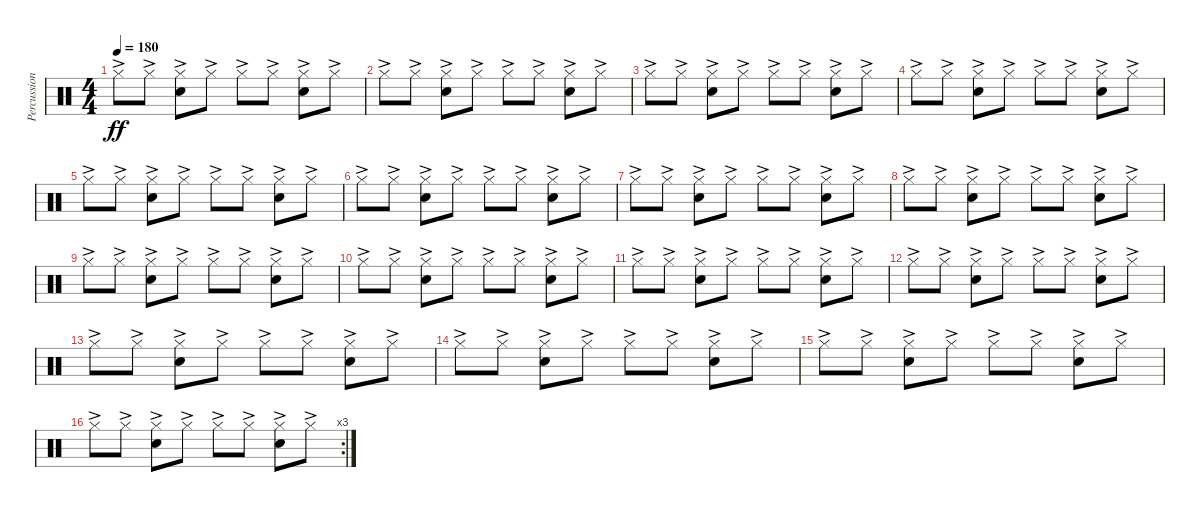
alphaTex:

\track ("Percussion" "Percussion") {instrument percussion}
\staff {score}
\articulation defaults
\ts (4 4)
\tempo 180
\clef neutral
\ks c "Hi-Hat (closed)"{ac}.8{dy ff} "Hi-Hat (closed)"{ac}.8
("Hi-Hat (closed)"{ac} "Snare (hit) 2"{ac}).8 "Hi-Hat (closed)"{ac}.8 "Hi-Hat (closed)"{ac}.8 "Hi-Hat (closed)"{ac}.8 ("Hi-Hat (closed)"{ac} "Snare (hit) 2"{ac}).8 "Hi-Hat (closed)"{ac}.8 |
"Hi-Hat (closed)"{ac}.8 "Hi-Hat (closed)"{ac}.8 ("Hi-Hat (closed)"{ac} "Snare (hit) 2"{ac}).8 "Hi-Hat (closed)"{ac}.8 "Hi-Hat (closed)"{ac}.8 "Hi-Hat (closed)"{ac}.8 ("Hi-Hat (closed)"{ac} "Snare (hit) 2"{ac}).8 "Hi-Hat (closed)"{ac}.8 |
"Hi-Hat (closed)"{ac}.8 "Hi-Hat (closed)"{ac}.8 ("Hi-Hat (closed)"{ac} "Snare (hit) 2"{ac}).8 "Hi-Hat (closed)"{ac}.8 "Hi-Hat (closed)"{ac}.8 "Hi-Hat (closed)"{ac}.8 ("Hi-Hat (closed)"{ac} "Snare (hit) 2"{ac}).8 "Hi-Hat (closed)"{ac}.8 |
"Hi-Hat (closed)"{ac}.8 "Hi-Hat (closed)"{ac}.8 ("Hi-Hat (closed)"{ac} "Snare (hit) 2"{ac}).8 "Hi-Hat (closed)"{ac}.8 "Hi-Hat (closed)"{ac}.8 "Hi-Hat (closed)"{ac}.8 ("Hi-Hat (closed)"{ac} "Snare (hit) 2"{ac}).8 "Hi-Hat (closed)"{ac}.8 |
"Hi-Hat (closed)"{ac}.8 "Hi-Hat (closed)"{ac}.8 ("Hi-Hat (closed)"{ac} "Snare (hit) 2"{ac}).8 "Hi-Hat (closed)"{ac}.8 "Hi-Hat (closed)"{ac}.8 "Hi-Hat (closed)"{ac}.8 ("Hi-Hat (closed)"{ac} "Snare (hit) 2"{ac}).8 "Hi-Hat (closed)"{ac}.8 |
"Hi-Hat (closed)"{ac}.8 "Hi-Hat (closed)"{ac}.8 ("Hi-Hat (closed)"{ac} "Snare (hit) 2"{ac}).8 "Hi-Hat (closed)"{ac}.8 "Hi-Hat (closed)"{ac}.8 "Hi-Hat (closed)"{ac}.8 ("Hi-Hat (closed)"{ac} "Snare (hit) 2"{ac}).8 "Hi-Hat (closed)"{ac}.8 |
"Hi-Hat (closed)"{ac}.8 "Hi-Hat (closed)"{ac}.8 ("Hi-Hat (closed)"{ac} "Snare (hit) 2"{ac}).8 "Hi-Hat (closed)"{ac}.8 "Hi-Hat (closed)"{ac}.8 "Hi-Hat (closed)"{ac}.8 ("Hi-Hat (closed)"{ac} "Snare (hit) 2"{ac}).8 "Hi-Hat (closed)"{ac}.8 |
"Hi-Hat (closed)"{ac}.8 "Hi-Hat (closed)"{ac}.8 ("Hi-Hat (closed)"{ac} "Snare (hit) 2"{ac}).8 "Hi-Hat (closed)"{ac}.8 "Hi-Hat (closed)"{ac}.8 "Hi-Hat (closed)"{ac}.8 ("Hi-Hat (closed)"{ac} "Snare (hit) 2"{ac}).8 "Hi-Hat (closed)"{ac}.8 |
"Hi-Hat (closed)"{ac}.8 "Hi-Hat (closed)"{ac}.8 ("Hi-Hat (closed)"{ac} "Snare (hit) 2"{ac}).8 "Hi-Hat (closed)"{ac}.8 "Hi-Hat (closed)"{ac}.8 "Hi-Hat (closed)"{ac}.8 ("Hi-Hat (closed)"{ac} "Snare (hit) 2"{ac}).8 "Hi-Hat (closed)"{ac}.8 |
"Hi-Hat (closed)"{ac}.8 "Hi-Hat (closed)"{ac}.8 ("Hi-Hat (closed)"{ac} "Snare (hit) 2"{ac}).8 "Hi-Hat (closed)"{ac}.8 "Hi-Hat (closed)"{ac}.8 "Hi-Hat (closed)"{ac}.8 ("Hi-Hat (closed)"{ac} "Snare (hit) 2"{ac}).8 "Hi-Hat (closed)"{ac}.8 |
"Hi-Hat (closed)"{ac}.8 "Hi-Hat (closed)"{ac}.8 ("Hi-Hat (closed)"{ac} "Snare (hit) 2"{ac}).8 "Hi-Hat (closed)"{ac}.8 "Hi-Hat (closed)"{ac}.8 "Hi-Hat (closed)"{ac}.8 ("Hi-Hat (closed)"{ac} "Snare (hit) 2"{ac}).8 "Hi-Hat (closed)"{ac}.8 |
"Hi-Hat (closed)"{ac}.8 "Hi-Hat (closed)"{ac}.8 ("Hi-Hat (closed)"{ac} "Snare (hit) 2"{ac}).8 "Hi-Hat (closed)"{ac}.8 "Hi-Hat (closed)"{ac}.8 "Hi-Hat (closed)"{ac}.8 ("Hi-Hat (closed)"{ac} "Snare (hit) 2"{ac}).8 "Hi-Hat (closed)"{ac}.8 |
"Hi-Hat (closed)"{ac}.8 "Hi-Hat (closed)"{ac}.8 ("Hi-Hat (closed)"{ac} "Snare (hit) 2"{ac}).8 "Hi-Hat (closed)"{ac}.8 "Hi-Hat (closed)"{ac}.8 "Hi-Hat (closed)"{ac}.8 ("Hi-Hat (closed)"{ac} "Snare (hit) 2"{ac}).8 "Hi-Hat (closed)"{ac}.8 |
"Hi-Hat (closed)"{ac}.8 "Hi-Hat (closed)"{ac}.8 ("Hi-Hat (closed)"{ac} "Snare (hit) 2"{ac}).8 "Hi-Hat (closed)"{ac}.8 "Hi-Hat (closed)"{ac}.8 "Hi-Hat (closed)"{ac}.8 ("Hi-Hat (closed)"{ac} "Snare (hit) 2"{ac}).8 "Hi-Hat (closed)"{ac}.8 |
"Hi-Hat (closed)"{ac}.8 "Hi-Hat (closed)"{ac}.8 ("Hi-Hat (closed)"{ac} "Snare (hit) 2"{ac}).8 "Hi-Hat (closed)"{ac}.8 "Hi-Hat (closed)"{ac}.8 "Hi-Hat (closed)"{ac}.8 ("Hi-Hat (closed)"{ac} "Snare (hit) 2"{ac}).8 "Hi-Hat (closed)"{ac}.8 |
\rc 3 "Hi-Hat (closed)"{ac}.8 "Hi-Hat (closed)"{ac}.8
("Hi-Hat (closed)"{ac} "Snare (hit) 2"{ac}).8 "Hi-Hat (closed)"{ac}.8 "Hi-Hat (closed)"{ac}.8 "Hi-Hat (closed)"{ac}.8 ("Hi-Hat (closed)"{ac} "Snare (hit) 2"{ac}).8 "Hi-Hat (closed)"{ac}.8
